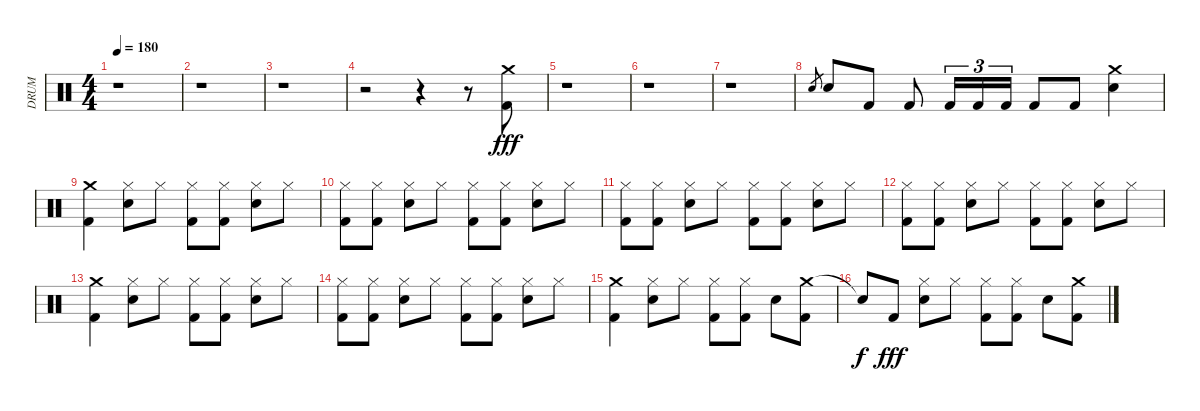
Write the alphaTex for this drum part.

\track ("DRUM" "DRUM") {instrument percussion}
\staff {score}
\articulation defaults
\ts (4 4)
\tempo 180
\clef neutral
\ks c
r.1{dy fff} |
r.1 |
r.1 |
r.2 r.4 r.8 ("Crash medium (hit)" "Kick (hit) 2").8 |
r.1 |
r.1 |
r.1 |
"Snare (hit) 2".8{gr} "Snare (hit) 2".8 "Kick (hit) 2".8 "Kick (hit) 2".8 "Kick (hit) 2".16{tu (3 2)} "Kick (hit) 2".16{tu (3 2)} "Kick (hit) 2".16{tu (3 2)} "Kick (hit) 2".8 "Kick (hit) 2".8 ("Crash medium (hit)" "Snare (hit) 2").4 |
("Crash medium (hit)" "Kick (hit) 2").4 ("Hi-Hat (closed)" "Snare (hit) 2").8 "Hi-Hat (closed)".8 ("Hi-Hat (closed)" "Kick (hit) 2").8 ("Hi-Hat (closed)" "Kick (hit) 2").8 ("Hi-Hat (closed)" "Snare (hit) 2").8 "Hi-Hat (closed)".8 |
("Hi-Hat (closed)" "Kick (hit) 2").8 ("Hi-Hat (closed)" "Kick (hit) 2").8 ("Hi-Hat (closed)" "Snare (hit) 2").8 "Hi-Hat (closed)".8 ("Hi-Hat (closed)" "Kick (hit) 2").8 ("Hi-Hat (closed)" "Kick (hit) 2").8 ("Hi-Hat (closed)" "Snare (hit) 2").8 "Hi-Hat (closed)".8 |
("Hi-Hat (closed)" "Kick (hit) 2").8 ("Hi-Hat (closed)" "Kick (hit) 2").8 ("Hi-Hat (closed)" "Snare (hit) 2").8 "Hi-Hat (closed)".8 ("Hi-Hat (closed)" "Kick (hit) 2").8 ("Hi-Hat (closed)" "Kick (hit) 2").8 ("Hi-Hat (closed)" "Snare (hit) 2").8 "Hi-Hat (closed)".8 |
("Hi-Hat (closed)" "Kick (hit) 2").8 ("Hi-Hat (closed)" "Kick (hit) 2").8 ("Hi-Hat (closed)" "Snare (hit) 2").8 "Hi-Hat (closed)".8 ("Hi-Hat (closed)" "Kick (hit) 2").8 ("Hi-Hat (closed)" "Kick (hit) 2").8 ("Hi-Hat (closed)" "Snare (hit) 2").8 "Hi-Hat (closed)".8 |
("Crash medium (hit)" "Kick (hit) 2").4 ("Hi-Hat (closed)" "Snare (hit) 2").8 "Hi-Hat (closed)".8 ("Hi-Hat (closed)" "Kick (hit) 2").8 ("Hi-Hat (closed)" "Kick (hit) 2").8 ("Hi-Hat (closed)" "Snare (hit) 2").8 "Hi-Hat (closed)".8 |
("Hi-Hat (closed)" "Kick (hit) 2").8 ("Hi-Hat (closed)" "Kick (hit) 2").8 ("Hi-Hat (closed)" "Snare (hit) 2").8 "Hi-Hat (closed)".8 ("Hi-Hat (closed)" "Kick (hit) 2").8 ("Hi-Hat (closed)" "Kick (hit) 2").8 ("Hi-Hat (closed)" "Snare (hit) 2").8 "Hi-Hat (closed)".8 |
("Crash medium (hit)" "Kick (hit) 2").4 ("Hi-Hat (closed)" "Snare (hit) 2").8 "Hi-Hat (closed)".8 ("Hi-Hat (closed)" "Kick (hit) 2").8 ("Hi-Hat (closed)" "Kick (hit) 2").8 "Snare (hit) 2".8 ("Crash medium (hit)" "Kick (hit) 2").8 |
"Snare (hit)"{t}.8{dy f} "Kick (hit) 2".8{dy fff} ("Hi-Hat (closed)" "Snare (hit) 2").8 "Hi-Hat (closed)".8 ("Hi-Hat (closed)" "Kick (hit) 2").8 ("Hi-Hat (closed)" "Kick (hit) 2").8 "Snare (hit) 2".8 ("Crash medium (hit)" "Kick (hit) 2").8
